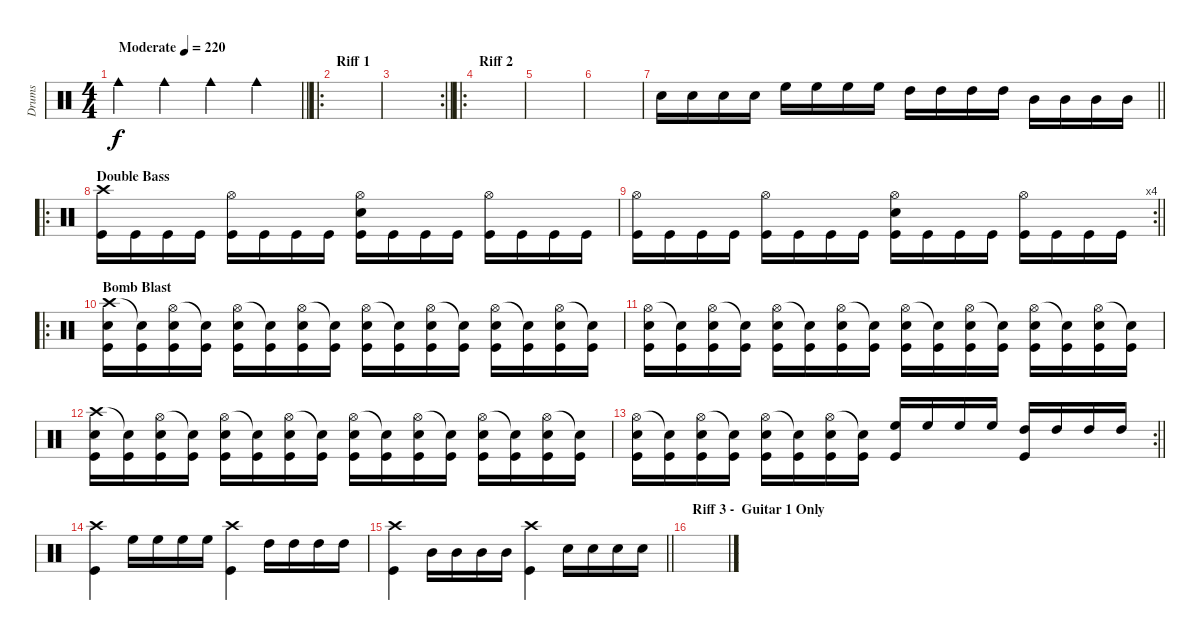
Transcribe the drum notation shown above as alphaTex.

\track ("Drums" "Drums") {instrument percussion}
\staff {score}
\articulation defaults
\ts (4 4)
\tempo (220 "Moderate")
\clef neutral
\barLineRight lightlight
\ks c "Cowbell medium (hit)".4{dy f} "Cowbell medium (hit)".4 "Cowbell medium (hit)".4 "Cowbell medium (hit)".4
|
\ro
\section ("" "Riff 1")
|
\rc 2
\barLineRight lightlight
|
\ro
\section ("" "Riff 2")
|
|
|
\barLineRight lightlight "Electric Snare (hit)".16 "Electric Snare (hit)".16 "Electric Snare (hit)".16 "Electric Snare (hit)".16 "High Floor Tom (hit)".16 "High Floor Tom (hit)".16 "High Floor Tom (hit)".16 "High Floor Tom (hit)".16 "High Tom (hit)".16 "High Tom (hit)".16 "High Tom (hit)".16 "High Tom (hit)".16 "Mid Tom (hit)".16 "Mid Tom (hit)".16 "Mid Tom (hit)".16 "Mid Tom (hit)".16
|
\ro
\section ("" "Double Bass")
("Crash high (hit)" "Kick (hit)").16 "Kick (hit)".16 "Kick (hit)".16 "Kick (hit)".16 ("Hi-Hat (open)" "Kick (hit)").16 "Kick (hit)".16 "Kick (hit)".16 "Kick (hit)".16 ("Hi-Hat (open)" "Electric Snare (hit)" "Kick (hit)").16 "Kick (hit)".16 "Kick (hit)".16 "Kick (hit)".16 ("Hi-Hat (open)" "Kick (hit)").16 "Kick (hit)".16 "Kick (hit)".16 "Kick (hit)".16 |
\rc 4
\barLineRight lightlight
("Hi-Hat (open)" "Kick (hit)").16 "Kick (hit)".16 "Kick (hit)".16 "Kick (hit)".16 ("Hi-Hat (open)" "Kick (hit)").16 "Kick (hit)".16 "Kick (hit)".16 "Kick (hit)".16 ("Hi-Hat (open)" "Electric Snare (hit)" "Kick (hit)").16 "Kick (hit)".16 "Kick (hit)".16 "Kick (hit)".16 ("Hi-Hat (open)" "Kick (hit)").16 "Kick (hit)".16 "Kick (hit)".16 "Kick (hit)".16 |
\ro
\section ("" "Bomb Blast ")
("Crash high (hit)" "Electric Snare (hit)" "Kick (hit)").16 ("Snare (hit)"{t} "Kick (hit)").16 ("Hi-Hat (open)" "Electric Snare (hit)" "Kick (hit)").16 ("Snare (hit)"{t} "Kick (hit)").16 ("Hi-Hat (open)" "Electric Snare (hit)" "Kick (hit)").16 ("Snare (hit)"{t} "Kick (hit)").16 ("Hi-Hat (open)" "Electric Snare (hit)" "Kick (hit)").16 ("Snare (hit)"{t} "Kick (hit)").16 ("Hi-Hat (open)" "Electric Snare (hit)" "Kick (hit)").16 ("Snare (hit)"{t} "Kick (hit)").16 ("Hi-Hat (open)" "Electric Snare (hit)" "Kick (hit)").16 ("Snare (hit)"{t} "Kick (hit)").16 ("Hi-Hat (open)" "Electric Snare (hit)" "Kick (hit)").16 ("Snare (hit)"{t} "Kick (hit)").16 ("Hi-Hat (open)" "Electric Snare (hit)" "Kick (hit)").16 ("Snare (hit)"{t} "Kick (hit)").16 |
("Hi-Hat (open)" "Electric Snare (hit)" "Kick (hit)").16 ("Snare (hit)"{t} "Kick (hit)").16 ("Hi-Hat (open)" "Electric Snare (hit)" "Kick (hit)").16 ("Snare (hit)"{t} "Kick (hit)").16 ("Hi-Hat (open)" "Electric Snare (hit)" "Kick (hit)").16 ("Snare (hit)"{t} "Kick (hit)").16 ("Hi-Hat (open)" "Electric Snare (hit)" "Kick (hit)").16 ("Snare (hit)"{t} "Kick (hit)").16 ("Hi-Hat (open)" "Electric Snare (hit)" "Kick (hit)").16 ("Snare (hit)"{t} "Kick (hit)").16 ("Hi-Hat (open)" "Electric Snare (hit)" "Kick (hit)").16 ("Snare (hit)"{t} "Kick (hit)").16 ("Hi-Hat (open)" "Electric Snare (hit)" "Kick (hit)").16 ("Snare (hit)"{t} "Kick (hit)").16 ("Hi-Hat (open)" "Electric Snare (hit)" "Kick (hit)").16 ("Snare (hit)"{t} "Kick (hit)").16 |
("Crash high (hit)" "Electric Snare (hit)" "Kick (hit)").16 ("Snare (hit)"{t} "Kick (hit)").16 ("Hi-Hat (open)" "Electric Snare (hit)" "Kick (hit)").16 ("Snare (hit)"{t} "Kick (hit)").16 ("Hi-Hat (open)" "Electric Snare (hit)" "Kick (hit)").16 ("Snare (hit)"{t} "Kick (hit)").16 ("Hi-Hat (open)" "Electric Snare (hit)" "Kick (hit)").16 ("Snare (hit)"{t} "Kick (hit)").16 ("Hi-Hat (open)" "Electric Snare (hit)" "Kick (hit)").16 ("Snare (hit)"{t} "Kick (hit)").16 ("Hi-Hat (open)" "Electric Snare (hit)" "Kick (hit)").16 ("Snare (hit)"{t} "Kick (hit)").16 ("Hi-Hat (open)" "Electric Snare (hit)" "Kick (hit)").16 ("Snare (hit)"{t} "Kick (hit)").16 ("Hi-Hat (open)" "Electric Snare (hit)" "Kick (hit)").16 ("Snare (hit)"{t} "Kick (hit)").16 |
\rc 2
\barLineRight lightlight
("Hi-Hat (open)" "Electric Snare (hit)" "Kick (hit)").16 ("Snare (hit)"{t} "Kick (hit)").16 ("Hi-Hat (open)" "Electric Snare (hit)" "Kick (hit)").16 ("Snare (hit)"{t} "Kick (hit)").16 ("Hi-Hat (open)" "Electric Snare (hit)" "Kick (hit)").16 ("Snare (hit)"{t} "Kick (hit)").16 ("Hi-Hat (open)" "Electric Snare (hit)" "Kick (hit)").16 ("Snare (hit)"{t} "Kick (hit)").16 ("High Floor Tom (hit)" "Kick (hit)").16 "High Floor Tom (hit)".16 "High Floor Tom (hit)".16 "High Floor Tom (hit)".16 ("High Tom (hit)" "Kick (hit)").16 "High Tom (hit)".16 "High Tom (hit)".16 "High Tom (hit)".16 |
("Crash high (hit)" "Kick (hit)").4 "High Floor Tom (hit)".16 "High Floor Tom (hit)".16 "High Floor Tom (hit)".16 "High Floor Tom (hit)".16 ("Crash high (hit)" "Kick (hit)").4 "High Tom (hit)".16 "High Tom (hit)".16 "High Tom (hit)".16 "High Tom (hit)".16 |
\barLineRight lightlight
("Crash high (hit)" "Kick (hit)").4 "Mid Tom (hit)".16 "Mid Tom (hit)".16 "Mid Tom (hit)".16 "Mid Tom (hit)".16 ("Crash high (hit)" "Kick (hit)").4 "Electric Snare (hit)".16 "Electric Snare (hit)".16 "Electric Snare (hit)".16 "Electric Snare (hit)".16 |
\section ("" "Riff 3 -  Guitar 1 Only")
